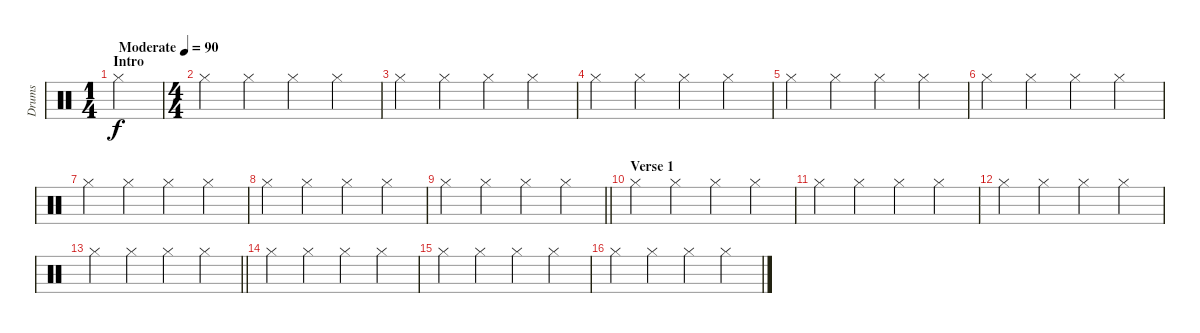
\track ("Drums" "Drums") {instrument percussion}
\staff {score}
\articulation defaults
\ts (1 4)
\section ("" "Intro ")
\tempo (90 "Moderate")
\clef neutral
\ks c "Hi-Hat (closed)".4{dy f}
|
\ts (4 4)
"Hi-Hat (closed)".4 "Hi-Hat (closed)".4 "Hi-Hat (closed)".4 "Hi-Hat (closed)".4 |
"Hi-Hat (closed)".4 "Hi-Hat (closed)".4 "Hi-Hat (closed)".4 "Hi-Hat (closed)".4 |
"Hi-Hat (closed)".4 "Hi-Hat (closed)".4 "Hi-Hat (closed)".4 "Hi-Hat (closed)".4 |
"Hi-Hat (closed)".4 "Hi-Hat (closed)".4 "Hi-Hat (closed)".4 "Hi-Hat (closed)".4 |
"Hi-Hat (closed)".4 "Hi-Hat (closed)".4 "Hi-Hat (closed)".4 "Hi-Hat (closed)".4 |
"Hi-Hat (closed)".4 "Hi-Hat (closed)".4 "Hi-Hat (closed)".4 "Hi-Hat (closed)".4 |
"Hi-Hat (closed)".4 "Hi-Hat (closed)".4 "Hi-Hat (closed)".4 "Hi-Hat (closed)".4 |
\barLineRight lightlight "Hi-Hat (closed)".4 "Hi-Hat (closed)".4 "Hi-Hat (closed)".4 "Hi-Hat (closed)".4
|
\section ("" "Verse 1")
"Hi-Hat (closed)".4 "Hi-Hat (closed)".4 "Hi-Hat (closed)".4 "Hi-Hat (closed)".4 |
"Hi-Hat (closed)".4 "Hi-Hat (closed)".4 "Hi-Hat (closed)".4 "Hi-Hat (closed)".4 |
"Hi-Hat (closed)".4 "Hi-Hat (closed)".4 "Hi-Hat (closed)".4 "Hi-Hat (closed)".4 |
\barLineRight lightlight "Hi-Hat (closed)".4 "Hi-Hat (closed)".4 "Hi-Hat (closed)".4 "Hi-Hat (closed)".4
|
"Hi-Hat (closed)".4 "Hi-Hat (closed)".4 "Hi-Hat (closed)".4 "Hi-Hat (closed)".4 |
"Hi-Hat (closed)".4 "Hi-Hat (closed)".4 "Hi-Hat (closed)".4 "Hi-Hat (closed)".4 |
"Hi-Hat (closed)".4 "Hi-Hat (closed)".4 "Hi-Hat (closed)".4 "Hi-Hat (closed)".4
